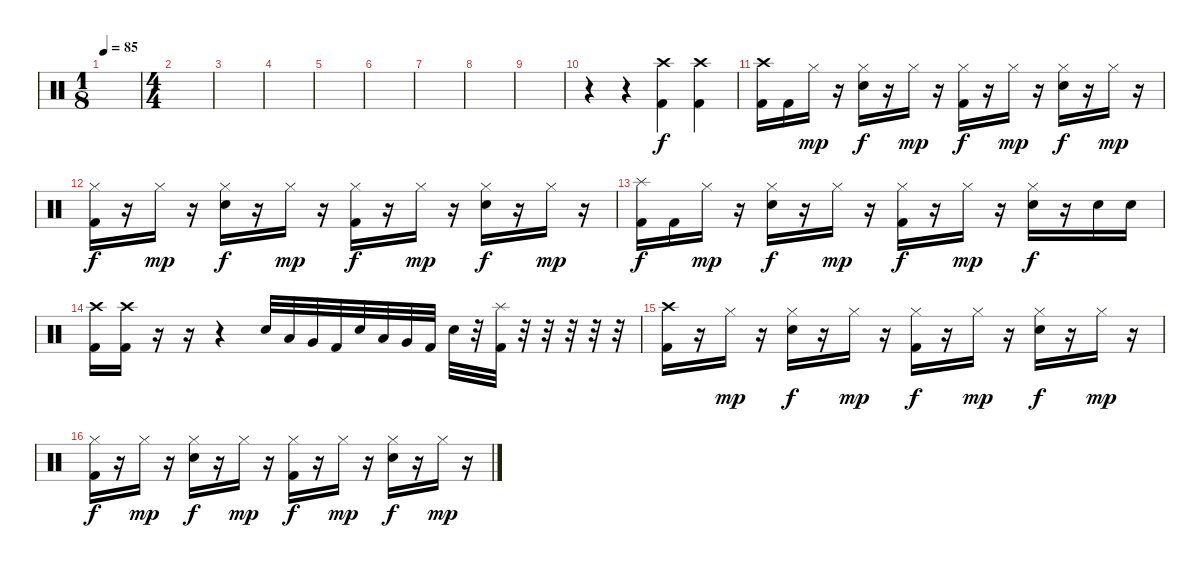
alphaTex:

\track ("              Stefff" "          ") {instrument percussion}
\staff {score}
\articulation defaults
\ts (1 8)
\tempo 85
\clef neutral
\ks c
|
\ts (4 4)
|
|
|
|
|
|
|
|
r.4 r.4 ("Crash high (hit)" "Kick (hit) 2").4 ("Crash high (hit)" "Kick (hit) 2").4 |
("Kick (hit) 2" "Crash high (hit)").16 "Kick (hit) 2".16 "Hi-Hat (closed)".16{dy mp} r.16 ("Hi-Hat (closed)" "Snare (hit) 2").16{dy f} r.16 "Hi-Hat (closed)".16{dy mp} r.16 ("Hi-Hat (closed)" "Kick (hit) 2").16{dy f} r.16 "Hi-Hat (closed)".16{dy mp} r.16 ("Hi-Hat (closed)" "Snare (hit) 2").16{dy f} r.16 "Hi-Hat (closed)".16{dy mp} r.16 |
("Kick (hit) 2" "Hi-Hat (closed)").16{dy f} r.16 "Hi-Hat (closed)".16{dy mp} r.16 ("Hi-Hat (closed)" "Snare (hit) 2").16{dy f} r.16 "Hi-Hat (closed)".16{dy mp} r.16 ("Hi-Hat (closed)" "Kick (hit) 2").16{dy f} r.16 "Hi-Hat (closed)".16{dy mp} r.16 ("Hi-Hat (closed)" "Snare (hit) 2").16{dy f} r.16 "Hi-Hat (closed)".16{dy mp} r.16 |
("Kick (hit) 2" "Splash (hit)").16{dy f} "Kick (hit) 2".16 "Hi-Hat (closed)".16{dy mp} r.16 ("Hi-Hat (closed)" "Snare (hit) 2").16{dy f} r.16 "Hi-Hat (closed)".16{dy mp} r.16 ("Hi-Hat (closed)" "Kick (hit) 2").16{dy f} r.16 "Hi-Hat (closed)".16{dy mp} r.16 ("Hi-Hat (closed)" "Snare (hit) 2").16{dy f} r.16 "Snare (hit) 2".16 "Snare (hit) 2".16 |
("Crash high (hit)" "Kick (hit) 2").16 ("Crash high (hit)" "Kick (hit) 2").16 r.16 r.16 r.4 "Snare (hit) 2".32 "Low Tom (hit)".32 "Very Low Tom (hit)".32 "Kick (hit) 2".32 "Snare (hit) 2".32 "Low Tom (hit)".32 "Very Low Tom (hit)".32 "Kick (hit) 2".32 "Snare (hit) 2".32 r.32 ("Kick (hit) 2" "Splash (hit)").32 r.32 r.32 r.32 r.32 r.32 |
("Kick (hit) 2" "Crash high (hit)").16 r.16 "Hi-Hat (closed)".16{dy mp} r.16 ("Hi-Hat (closed)" "Snare (hit) 2").16{dy f} r.16 "Hi-Hat (closed)".16{dy mp} r.16 ("Hi-Hat (closed)" "Kick (hit) 2").16{dy f} r.16 "Hi-Hat (closed)".16{dy mp} r.16 ("Hi-Hat (closed)" "Snare (hit) 2").16{dy f} r.16 "Hi-Hat (closed)".16{dy mp} r.16 |
("Kick (hit) 2" "Hi-Hat (closed)").16{dy f} r.16 "Hi-Hat (closed)".16{dy mp} r.16 ("Hi-Hat (closed)" "Snare (hit) 2").16{dy f} r.16 "Hi-Hat (closed)".16{dy mp} r.16 ("Hi-Hat (closed)" "Kick (hit) 2").16{dy f} r.16 "Hi-Hat (closed)".16{dy mp} r.16 ("Hi-Hat (closed)" "Snare (hit) 2").16{dy f} r.16 "Hi-Hat (closed)".16{dy mp} r.16
